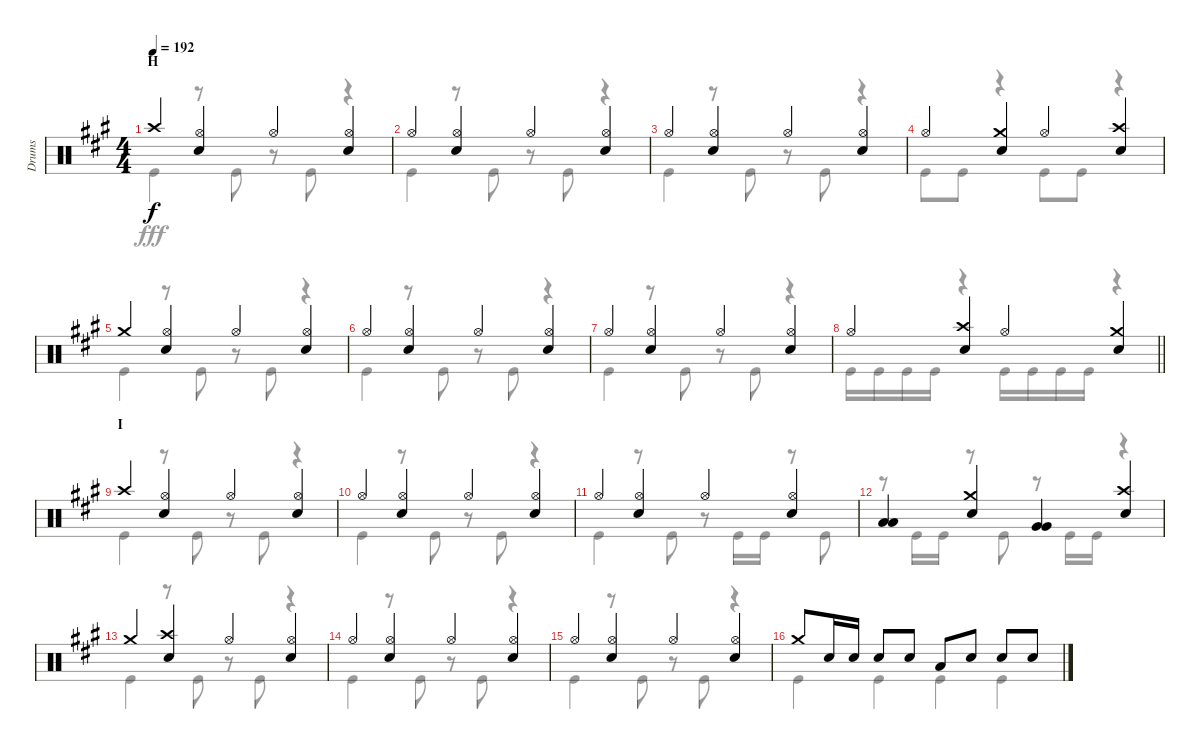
\track ("Drums" "Drums") {instrument percussion}
\staff {score}
\articulation defaults
\voice
\ts (4 4)
\section ("" "H")
\tempo 192
\clef neutral
\ks a "Crash high (hit)".4{dy f}
("Hi-Hat (open)" "Snare (hit) 2").4 "Hi-Hat (open)".4 ("Hi-Hat (open)" "Snare (hit) 2").4 |
"Hi-Hat (open)".4 ("Hi-Hat (open)" "Snare (hit) 2").4 "Hi-Hat (open)".4 ("Hi-Hat (open)" "Snare (hit) 2").4 |
"Hi-Hat (open)".4 ("Hi-Hat (open)" "Snare (hit) 2").4 "Hi-Hat (open)".4 ("Hi-Hat (open)" "Snare (hit) 2").4 |
"Hi-Hat (open)".4 ("Crash medium (hit)" "Snare (hit) 2").4 "Hi-Hat (open)".4 ("Crash high (hit)" "Snare (hit) 2").4 |
"Crash medium (hit)".4 ("Hi-Hat (open)" "Snare (hit) 2").4 "Hi-Hat (open)".4 ("Hi-Hat (open)" "Snare (hit) 2").4 |
"Hi-Hat (open)".4 ("Hi-Hat (open)" "Snare (hit) 2").4 "Hi-Hat (open)".4 ("Hi-Hat (open)" "Snare (hit) 2").4 |
"Hi-Hat (open)".4 ("Hi-Hat (open)" "Snare (hit) 2").4 "Hi-Hat (open)".4 ("Hi-Hat (open)" "Snare (hit) 2").4 |
\barLineRight lightlight "Hi-Hat (open)".4
("Crash high (hit)" "Snare (hit) 2").4 "Hi-Hat (open)".4 ("Crash medium (hit)" "Snare (hit) 2").4 |
\section ("" "I")
"Crash high (hit)".4 ("Hi-Hat (open)" "Snare (hit) 2").4 "Hi-Hat (open)".4 ("Hi-Hat (open)" "Snare (hit) 2").4 |
"Hi-Hat (open)".4 ("Hi-Hat (open)" "Snare (hit) 2").4 "Hi-Hat (open)".4 ("Hi-Hat (open)" "Snare (hit) 2").4 |
"Hi-Hat (open)".4 ("Hi-Hat (open)" "Snare (hit) 2").4 "Hi-Hat (open)".4 ("Hi-Hat (open)" "Snare (hit) 2").4 |
("Low Tom (hit)" "Low Tom (hit)").4 ("Crash medium (hit)" "Snare (hit) 2").4 ("Very Low Tom (hit)" "Very Low Tom (hit)").4 ("Crash high (hit)" "Snare (hit) 2").4 |
"Crash medium (hit)".4 ("Crash high (hit)" "Snare (hit) 2").4 "Hi-Hat (open)".4 ("Hi-Hat (open)" "Snare (hit) 2").4 |
"Hi-Hat (open)".4 ("Hi-Hat (open)" "Snare (hit) 2").4 "Hi-Hat (open)".4 ("Hi-Hat (open)" "Snare (hit) 2").4 |
"Hi-Hat (open)".4 ("Hi-Hat (open)" "Snare (hit) 2").4 "Hi-Hat (open)".4 ("Hi-Hat (open)" "Snare (hit) 2").4 |
"Crash medium (hit)".8 "Snare (hit) 2".16 "Snare (hit) 2".16 "Snare (hit) 2".8 "Snare (hit) 2".8 "Low Tom (hit)".8 "Snare (hit) 2".8 "Snare (hit) 2".8 "Snare (hit) 2".8
\voice
\clef neutral
\ottava regular
\simile none
\ks a "Kick (hit)".4{dy fff}
r.8 "Kick (hit)".8 r.8 "Kick (hit)".8 r.4 |
"Kick (hit)".4 r.8 "Kick (hit)".8 r.8 "Kick (hit)".8 r.4 |
"Kick (hit)".4 r.8 "Kick (hit)".8 r.8 "Kick (hit)".8 r.4 |
"Kick (hit)".8 "Kick (hit)".8 r.4 "Kick (hit)".8 "Kick (hit)".8 r.4 |
"Kick (hit)".4 r.8 "Kick (hit)".8 r.8 "Kick (hit)".8 r.4 |
"Kick (hit)".4 r.8 "Kick (hit)".8 r.8 "Kick (hit)".8 r.4 |
"Kick (hit)".4 r.8 "Kick (hit)".8 r.8 "Kick (hit)".8 r.4 |
\barLineRight lightlight "Kick (hit)".16 "Kick (hit)".16 "Kick (hit)".16 "Kick (hit)".16
r.4 "Kick (hit)".16 "Kick (hit)".16 "Kick (hit)".16 "Kick (hit)".16 r.4 |
"Kick (hit)".4 r.8 "Kick (hit)".8 r.8 "Kick (hit)".8 r.4 |
"Kick (hit)".4 r.8 "Kick (hit)".8 r.8 "Kick (hit)".8 r.4 |
"Kick (hit)".4 r.8 "Kick (hit)".8 r.8 "Kick (hit)".16 "Kick (hit)".16 r.8 "Kick (hit)".8 |
r.8 "Kick (hit)".16 "Kick (hit)".16 r.8 "Kick (hit)".8 r.8 "Kick (hit)".16 "Kick (hit)".16 r.4 |
"Kick (hit)".4 r.8 "Kick (hit)".8 r.8 "Kick (hit)".8 r.4 |
"Kick (hit)".4 r.8 "Kick (hit)".8 r.8 "Kick (hit)".8 r.4 |
"Kick (hit)".4 r.8 "Kick (hit)".8 r.8 "Kick (hit)".8 r.4 |
"Kick (hit)".4 "Kick (hit)".4 "Kick (hit)".4 "Kick (hit)".4
